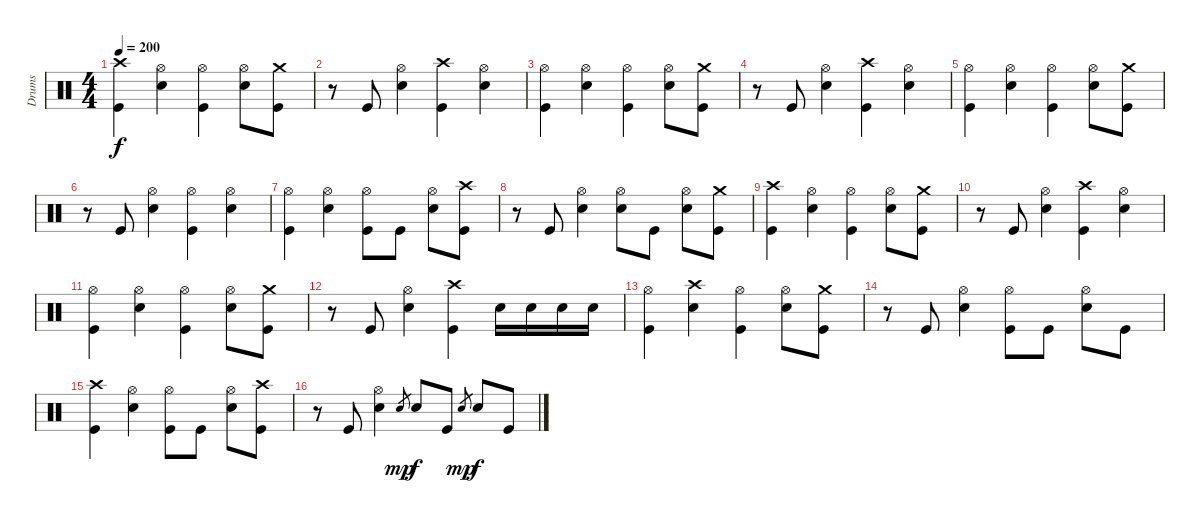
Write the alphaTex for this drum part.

\track ("Drums" "Drums") {instrument percussion}
\staff {score}
\articulation defaults
\ts (4 4)
\tempo 200
\clef neutral
\ks c
("Crash high (hit)" "Kick (hit)").4{dy f} ("Hi-Hat (open)" "Electric Snare (hit)").4 ("Hi-Hat (open)" "Kick (hit)").4 ("Hi-Hat (open)" "Electric Snare (hit)").8 ("Crash medium (hit)" "Kick (hit)").8 |
r.8 "Kick (hit)".8 ("Hi-Hat (open)" "Electric Snare (hit)").4 ("Crash high (hit)" "Kick (hit)").4 ("Hi-Hat (open)" "Electric Snare (hit)").4 |
("Hi-Hat (open)" "Kick (hit)").4 ("Hi-Hat (open)" "Electric Snare (hit)").4 ("Hi-Hat (open)" "Kick (hit)").4 ("Hi-Hat (open)" "Electric Snare (hit)").8 ("Crash medium (hit)" "Kick (hit)").8 |
r.8 "Kick (hit)".8 ("Hi-Hat (open)" "Electric Snare (hit)").4 ("Crash high (hit)" "Kick (hit)").4 ("Hi-Hat (open)" "Electric Snare (hit)").4 |
("Hi-Hat (open)" "Kick (hit)").4 ("Hi-Hat (open)" "Electric Snare (hit)").4 ("Hi-Hat (open)" "Kick (hit)").4 ("Hi-Hat (open)" "Electric Snare (hit)").8 ("Crash medium (hit)" "Kick (hit)").8 |
r.8 "Kick (hit)".8 ("Hi-Hat (open)" "Electric Snare (hit)").4 ("Hi-Hat (open)" "Kick (hit)").4 ("Hi-Hat (open)" "Electric Snare (hit)").4 |
("Hi-Hat (open)" "Kick (hit)").4 ("Hi-Hat (open)" "Electric Snare (hit)").4 ("Hi-Hat (open)" "Kick (hit)").8 "Kick (hit)".8 ("Hi-Hat (open)" "Electric Snare (hit)").8 ("Crash high (hit)" "Kick (hit)").8 |
r.8 "Kick (hit)".8 ("Hi-Hat (open)" "Electric Snare (hit)").4 ("Hi-Hat (open)" "Electric Snare (hit)").8 "Kick (hit)".8 ("Hi-Hat (open)" "Electric Snare (hit)").8 ("Crash medium (hit)" "Kick (hit)").8 |
("Crash high (hit)" "Kick (hit)").4 ("Hi-Hat (open)" "Electric Snare (hit)").4 ("Hi-Hat (open)" "Kick (hit)").4 ("Hi-Hat (open)" "Electric Snare (hit)").8 ("Crash medium (hit)" "Kick (hit)").8 |
r.8 "Kick (hit)".8 ("Hi-Hat (open)" "Electric Snare (hit)").4 ("Crash high (hit)" "Kick (hit)").4 ("Hi-Hat (open)" "Electric Snare (hit)").4 |
("Hi-Hat (open)" "Kick (hit)").4 ("Hi-Hat (open)" "Electric Snare (hit)").4 ("Hi-Hat (open)" "Kick (hit)").4 ("Hi-Hat (open)" "Electric Snare (hit)").8 ("Crash medium (hit)" "Kick (hit)").8 |
r.8 "Kick (hit)".8 ("Hi-Hat (open)" "Electric Snare (hit)").4 ("Crash high (hit)" "Kick (hit)").4 "Electric Snare (hit)".16 "Electric Snare (hit)".16 "Electric Snare (hit)".16 "Electric Snare (hit)".16 |
("Hi-Hat (open)" "Kick (hit)").4 ("Crash high (hit)" "Electric Snare (hit)").4 ("Hi-Hat (open)" "Kick (hit)").4 ("Hi-Hat (open)" "Electric Snare (hit)").8 ("Crash medium (hit)" "Kick (hit)").8 |
r.8 "Kick (hit)".8 ("Hi-Hat (open)" "Electric Snare (hit)").4 ("Hi-Hat (open)" "Kick (hit)").8 "Kick (hit)".8 ("Hi-Hat (open)" "Electric Snare (hit)").8 "Kick (hit)".8 |
("Crash high (hit)" "Kick (hit)").4 ("Hi-Hat (open)" "Electric Snare (hit)").4 ("Hi-Hat (open)" "Kick (hit)").8 "Kick (hit)".8 ("Hi-Hat (open)" "Electric Snare (hit)").8 ("Crash high (hit)" "Kick (hit)").8 |
r.8 "Kick (hit)".8 ("Hi-Hat (open)" "Electric Snare (hit)").4 "Electric Snare (hit)".8{gr dy mp} "Electric Snare (hit)".8{dy f} "Kick (hit)".8 "Electric Snare (hit)".8{gr dy mp} "Electric Snare (hit)".8{dy f} "Kick (hit)".8
